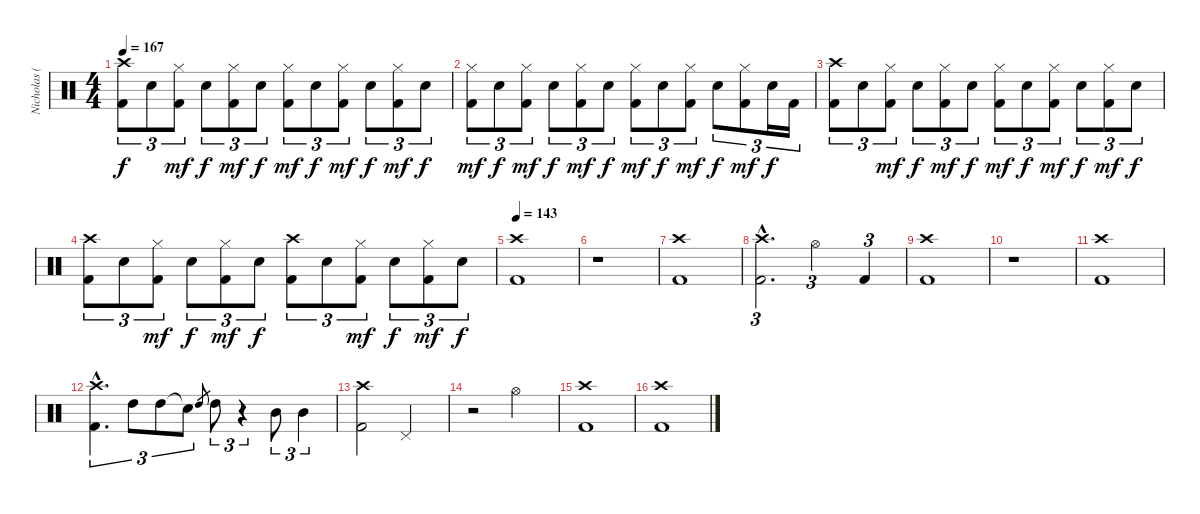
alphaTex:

\track ("Nicholas (Drums)" "Nicholas (") {instrument percussion}
\staff {score}
\articulation defaults
\ts (4 4)
\tempo 167
\clef neutral
\ks c
("Crash high (hit)" "Kick (hit) 2").8{tu (3 2) dy f} "Electric Snare (hit)".8{tu (3 2)} ("Hi-Hat (closed)" "Kick (hit) 2").8{tu (3 2) dy mf} "Electric Snare (hit)".8{tu (3 2) dy f} ("Hi-Hat (closed)" "Kick (hit) 2").8{tu (3 2) dy mf} "Electric Snare (hit)".8{tu (3 2) dy f} ("Hi-Hat (closed)" "Kick (hit) 2").8{tu (3 2) dy mf} "Electric Snare (hit)".8{tu (3 2) dy f} ("Hi-Hat (closed)" "Kick (hit) 2").8{tu (3 2) dy mf} "Electric Snare (hit)".8{tu (3 2) dy f} ("Hi-Hat (closed)" "Kick (hit) 2").8{tu (3 2) dy mf} "Electric Snare (hit)".8{tu (3 2) dy f} |
("Hi-Hat (closed)" "Kick (hit) 2").8{tu (3 2) dy mf} "Electric Snare (hit)".8{tu (3 2) dy f} ("Hi-Hat (closed)" "Kick (hit) 2").8{tu (3 2) dy mf} "Electric Snare (hit)".8{tu (3 2) dy f} ("Hi-Hat (closed)" "Kick (hit) 2").8{tu (3 2) dy mf} "Electric Snare (hit)".8{tu (3 2) dy f} ("Hi-Hat (closed)" "Kick (hit) 2").8{tu (3 2) dy mf} "Electric Snare (hit)".8{tu (3 2) dy f} ("Hi-Hat (closed)" "Kick (hit) 2").8{tu (3 2) dy mf} "Electric Snare (hit)".8{tu (3 2) dy f} ("Hi-Hat (closed)" "Kick (hit) 2").8{tu (3 2) dy mf} "Electric Snare (hit)".16{tu (3 2) dy f} "Kick (hit) 2".16{tu (3 2)} |
("Crash high (hit)" "Kick (hit) 2").8{tu (3 2)} "Electric Snare (hit)".8{tu (3 2)} ("Hi-Hat (closed)" "Kick (hit) 2").8{tu (3 2) dy mf} "Electric Snare (hit)".8{tu (3 2) dy f} ("Hi-Hat (closed)" "Kick (hit) 2").8{tu (3 2) dy mf} "Electric Snare (hit)".8{tu (3 2) dy f} ("Hi-Hat (closed)" "Kick (hit) 2").8{tu (3 2) dy mf} "Electric Snare (hit)".8{tu (3 2) dy f} ("Hi-Hat (closed)" "Kick (hit) 2").8{tu (3 2) dy mf} "Electric Snare (hit)".8{tu (3 2) dy f} ("Hi-Hat (closed)" "Kick (hit) 2").8{tu (3 2) dy mf} "Electric Snare (hit)".8{tu (3 2) dy f} |
("Crash high (hit)" "Kick (hit) 2").8{tu (3 2)} "Electric Snare (hit)".8{tu (3 2)} ("Hi-Hat (closed)" "Kick (hit) 2").8{tu (3 2) dy mf} "Electric Snare (hit)".8{tu (3 2) dy f} ("Hi-Hat (closed)" "Kick (hit) 2").8{tu (3 2) dy mf} "Electric Snare (hit)".8{tu (3 2) dy f} ("Crash high (hit)" "Kick (hit) 2").8{tu (3 2)} "Electric Snare (hit)".8{tu (3 2)} ("Hi-Hat (closed)" "Kick (hit) 2").8{tu (3 2) dy mf} "Electric Snare (hit)".8{tu (3 2) dy f} ("Hi-Hat (closed)" "Kick (hit) 2").8{tu (3 2) dy mf} "Electric Snare (hit)".8{tu (3 2) dy f} |
\tempo 143
("Crash high (hit)" "Kick (hit) 2").1 |
r.1 |
("Crash high (hit)" "Kick (hit) 2").1 |
("Crash high (hit)"{hac} "Kick (hit) 2"{hac}).2{d tu (3 2)} "Hi-Hat (open)".2{tu (3 2)} "Kick (hit) 2".4{tu (3 2)} |
("Crash high (hit)" "Kick (hit) 2").1 |
r.1 |
("Crash high (hit)" "Kick (hit) 2").1 |
("Crash high (hit)"{hac} "Kick (hit) 2"{hac}).4{d tu (3 2)} "High Tom (hit)".8{tu (3 2)} "High Tom (hit)".8{tu (3 2)} "Snare (hit)"{t}.8{tu (3 2)} "High Tom (hit)".8{gr} "High Tom (hit)".8{tu (3 2)} r.4{tu (3 2)} "Mid Tom (hit)".8{tu (3 2)} "Mid Tom (hit)".4{tu (3 2)} |
("Crash high (hit)" "Kick (hit) 2").2 "Pedal Hi-Hat (hit)".2 |
r.2 "Hi-Hat (open)".2 |
("Crash high (hit)" "Kick (hit) 2").1 |
("Crash high (hit)" "Kick (hit) 2").1
